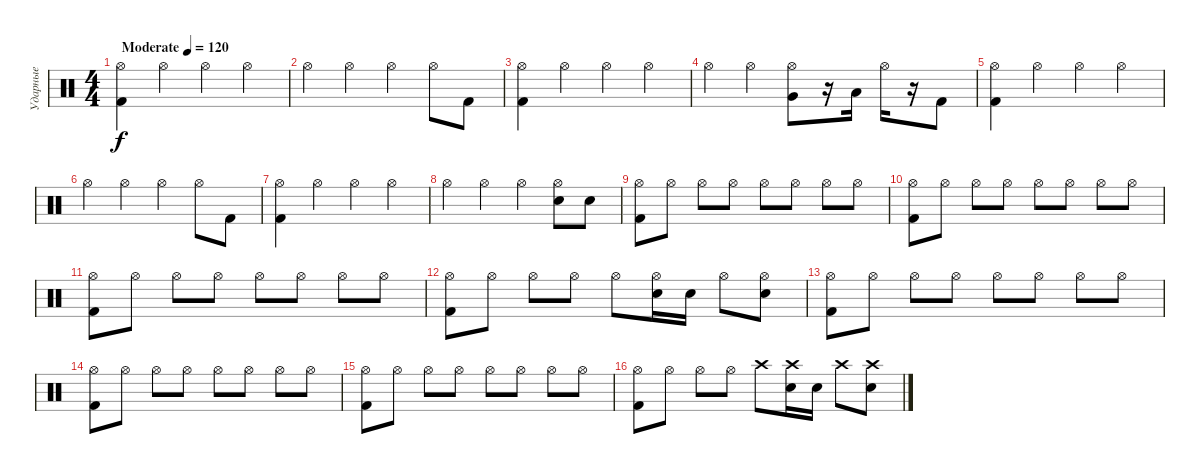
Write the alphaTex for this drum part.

\track ("Ударные" "Ударные") {instrument percussion}
\staff {score}
\articulation defaults
\ts (4 4)
\tempo (120 "Moderate")
\clef neutral
\ks c
("Hi-Hat (open)" "Kick (hit) 2").4{dy f} "Hi-Hat (open)".4 "Hi-Hat (open)".4 "Hi-Hat (open)".4 |
"Hi-Hat (open)".4 "Hi-Hat (open)".4 "Hi-Hat (open)".4 "Hi-Hat (open)".8 "Kick (hit) 2".8 |
("Hi-Hat (open)" "Kick (hit) 2").4 "Hi-Hat (open)".4 "Hi-Hat (open)".4 "Hi-Hat (open)".4 |
"Hi-Hat (open)".4 "Hi-Hat (open)".4 ("Hi-Hat (open)" "Very Low Tom (hit)").8 r.16 "Low Floor Tom (hit)".16 "Hi-Hat (open)".16 r.16 "Kick (hit) 2".8 |
("Hi-Hat (open)" "Kick (hit) 2").4 "Hi-Hat (open)".4 "Hi-Hat (open)".4 "Hi-Hat (open)".4 |
"Hi-Hat (open)".4 "Hi-Hat (open)".4 "Hi-Hat (open)".4 "Hi-Hat (open)".8 "Kick (hit) 2".8 |
("Hi-Hat (open)" "Kick (hit) 2").4 "Hi-Hat (open)".4 "Hi-Hat (open)".4 "Hi-Hat (open)".4 |
"Hi-Hat (open)".4 "Hi-Hat (open)".4 "Hi-Hat (open)".4 ("Hi-Hat (open)" "Electric Snare (hit)").8 "Electric Snare (hit)".8 |
("Hi-Hat (open)" "Kick (hit) 2").8 "Hi-Hat (open)".8 "Hi-Hat (open)".8 "Hi-Hat (open)".8 "Hi-Hat (open)".8 "Hi-Hat (open)".8 "Hi-Hat (open)".8 "Hi-Hat (open)".8 |
("Hi-Hat (open)" "Kick (hit) 2").8 "Hi-Hat (open)".8 "Hi-Hat (open)".8 "Hi-Hat (open)".8 "Hi-Hat (open)".8 "Hi-Hat (open)".8 "Hi-Hat (open)".8 "Hi-Hat (open)".8 |
("Hi-Hat (open)" "Kick (hit) 2").8 "Hi-Hat (open)".8 "Hi-Hat (open)".8 "Hi-Hat (open)".8 "Hi-Hat (open)".8 "Hi-Hat (open)".8 "Hi-Hat (open)".8 "Hi-Hat (open)".8 |
("Hi-Hat (open)" "Kick (hit) 2").8 "Hi-Hat (open)".8 "Hi-Hat (open)".8 "Hi-Hat (open)".8 "Hi-Hat (open)".8 ("Hi-Hat (open)" "Electric Snare (hit)").16 "Electric Snare (hit)".16 "Hi-Hat (open)".8 ("Hi-Hat (open)" "Electric Snare (hit)").8 |
("Hi-Hat (open)" "Kick (hit) 2").8 "Hi-Hat (open)".8 "Hi-Hat (open)".8 "Hi-Hat (open)".8 "Hi-Hat (open)".8 "Hi-Hat (open)".8 "Hi-Hat (open)".8 "Hi-Hat (open)".8 |
("Hi-Hat (open)" "Kick (hit) 2").8 "Hi-Hat (open)".8 "Hi-Hat (open)".8 "Hi-Hat (open)".8 "Hi-Hat (open)".8 "Hi-Hat (open)".8 "Hi-Hat (open)".8 "Hi-Hat (open)".8 |
("Hi-Hat (open)" "Kick (hit) 2").8 "Hi-Hat (open)".8 "Hi-Hat (open)".8 "Hi-Hat (open)".8 "Hi-Hat (open)".8 "Hi-Hat (open)".8 "Hi-Hat (open)".8 "Hi-Hat (open)".8 |
("Hi-Hat (open)" "Kick (hit) 2").8 "Hi-Hat (open)".8 "Hi-Hat (open)".8 "Hi-Hat (open)".8 "Crash high (hit)".8 ("Crash high (hit)" "Electric Snare (hit)").16 "Electric Snare (hit)".16 "Crash high (hit)".8 ("Crash high (hit)" "Electric Snare (hit)").8
